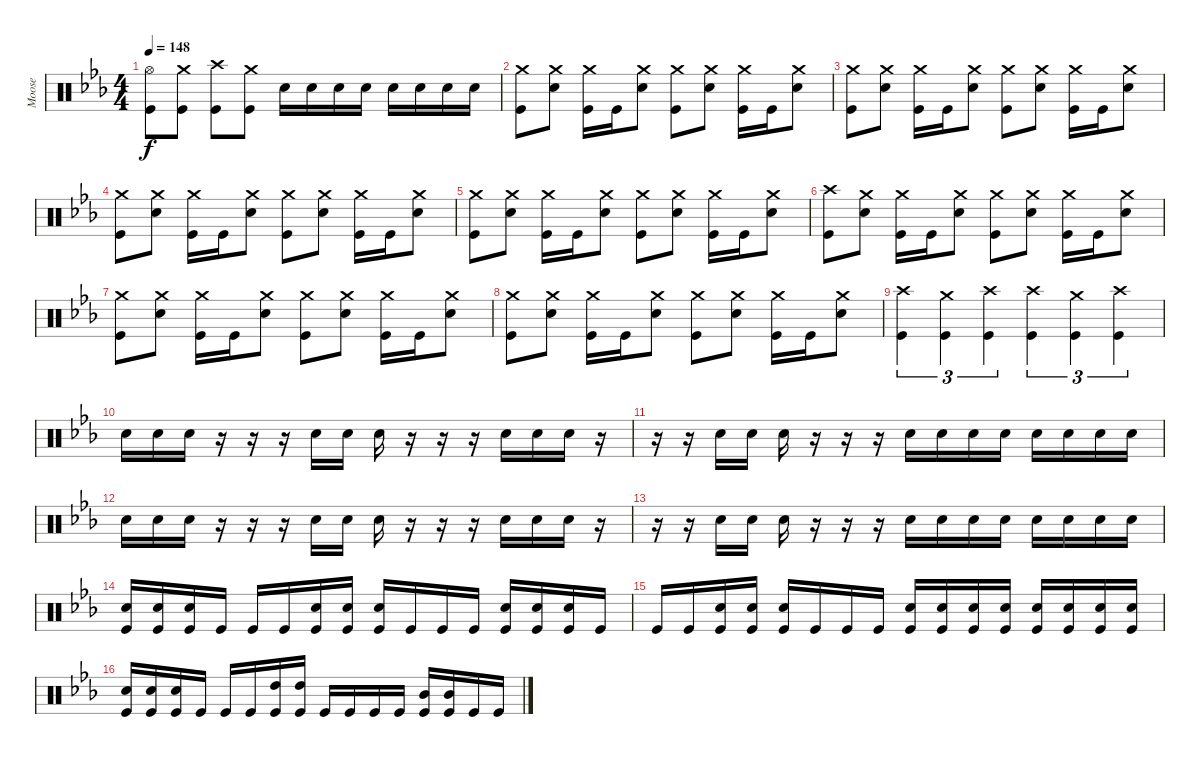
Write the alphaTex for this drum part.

\track ("Moose" "Moose") {instrument percussion}
\staff {score}
\articulation defaults
\ts (4 4)
\tempo 148
\clef neutral
\ks eb
("Hi-Hat (open)" "Kick (hit)").8{dy f} ("Crash medium (hit)" "Kick (hit)").8 ("Crash high (hit)" "Kick (hit)").8 ("Crash medium (hit)" "Kick (hit)").8 "Snare (hit) 2".16 "Snare (hit) 2".16 "Snare (hit) 2".16 "Snare (hit) 2".16 "Snare (hit) 2".16 "Snare (hit) 2".16 "Snare (hit) 2".16 "Snare (hit) 2".16 |
("Crash medium (hit)" "Kick (hit)").8 ("Crash medium (hit)" "Snare (hit) 2").8 ("Crash medium (hit)" "Kick (hit)").16 "Kick (hit)".16 ("Crash medium (hit)" "Snare (hit) 2").8 ("Crash medium (hit)" "Kick (hit)").8 ("Crash medium (hit)" "Snare (hit) 2").8 ("Crash medium (hit)" "Kick (hit)").16 "Kick (hit)".16 ("Crash medium (hit)" "Snare (hit) 2").8 |
("Crash medium (hit)" "Kick (hit)").8 ("Crash medium (hit)" "Snare (hit) 2").8 ("Crash medium (hit)" "Kick (hit)").16 "Kick (hit)".16 ("Crash medium (hit)" "Snare (hit) 2").8 ("Crash medium (hit)" "Kick (hit)").8 ("Crash medium (hit)" "Snare (hit) 2").8 ("Crash medium (hit)" "Kick (hit)").16 "Kick (hit)".16 ("Crash medium (hit)" "Snare (hit) 2").8 |
("Crash medium (hit)" "Kick (hit)").8 ("Crash medium (hit)" "Snare (hit) 2").8 ("Crash medium (hit)" "Kick (hit)").16 "Kick (hit)".16 ("Crash medium (hit)" "Snare (hit) 2").8 ("Crash medium (hit)" "Kick (hit)").8 ("Crash medium (hit)" "Snare (hit) 2").8 ("Crash medium (hit)" "Kick (hit)").16 "Kick (hit)".16 ("Crash medium (hit)" "Snare (hit) 2").8 |
("Crash medium (hit)" "Kick (hit)").8 ("Crash medium (hit)" "Snare (hit) 2").8 ("Crash medium (hit)" "Kick (hit)").16 "Kick (hit)".16 ("Crash medium (hit)" "Snare (hit) 2").8 ("Crash medium (hit)" "Kick (hit)").8 ("Crash medium (hit)" "Snare (hit) 2").8 ("Crash medium (hit)" "Kick (hit)").16 "Kick (hit)".16 ("Crash medium (hit)" "Snare (hit) 2").8 |
("Crash high (hit)" "Kick (hit)").8 ("Crash medium (hit)" "Snare (hit) 2").8 ("Crash medium (hit)" "Kick (hit)").16 "Kick (hit)".16 ("Crash medium (hit)" "Snare (hit) 2").8 ("Crash medium (hit)" "Kick (hit)").8 ("Crash medium (hit)" "Snare (hit) 2").8 ("Crash medium (hit)" "Kick (hit)").16 "Kick (hit)".16 ("Crash medium (hit)" "Snare (hit) 2").8 |
("Crash medium (hit)" "Kick (hit)").8 ("Crash medium (hit)" "Snare (hit) 2").8 ("Crash medium (hit)" "Kick (hit)").16 "Kick (hit)".16 ("Crash medium (hit)" "Snare (hit) 2").8 ("Crash medium (hit)" "Kick (hit)").8 ("Crash medium (hit)" "Snare (hit) 2").8 ("Crash medium (hit)" "Kick (hit)").16 "Kick (hit)".16 ("Crash medium (hit)" "Snare (hit) 2").8 |
("Crash medium (hit)" "Kick (hit)").8 ("Crash medium (hit)" "Snare (hit) 2").8 ("Crash medium (hit)" "Kick (hit)").16 "Kick (hit)".16 ("Crash medium (hit)" "Snare (hit) 2").8 ("Crash medium (hit)" "Kick (hit)").8 ("Crash medium (hit)" "Snare (hit) 2").8 ("Crash medium (hit)" "Kick (hit)").16 "Kick (hit)".16 ("Crash medium (hit)" "Snare (hit) 2").8 |
("Crash high (hit)" "Kick (hit)").4{tu (3 2)} ("Crash medium (hit)" "Kick (hit)").4{tu (3 2)} ("Crash high (hit)" "Kick (hit)").4{tu (3 2)} ("Crash high (hit)" "Kick (hit)").4{tu (3 2)} ("Crash medium (hit)" "Kick (hit)").4{tu (3 2)} ("Crash high (hit)" "Kick (hit)").4{tu (3 2)} |
"Snare (hit) 2".16 "Snare (hit) 2".16 "Snare (hit) 2".16 r.16 r.16 r.16 "Snare (hit) 2".16 "Snare (hit) 2".16 "Snare (hit) 2".16 r.16 r.16 r.16 "Snare (hit) 2".16 "Snare (hit) 2".16 "Snare (hit) 2".16 r.16 |
r.16 r.16 "Snare (hit) 2".16 "Snare (hit) 2".16 "Snare (hit) 2".16 r.16 r.16 r.16 "Snare (hit) 2".16 "Snare (hit) 2".16 "Snare (hit) 2".16 "Snare (hit) 2".16 "Snare (hit) 2".16 "Snare (hit) 2".16 "Snare (hit) 2".16 "Snare (hit) 2".16 |
"Snare (hit) 2".16 "Snare (hit) 2".16 "Snare (hit) 2".16 r.16 r.16 r.16 "Snare (hit) 2".16 "Snare (hit) 2".16 "Snare (hit) 2".16 r.16 r.16 r.16 "Snare (hit) 2".16 "Snare (hit) 2".16 "Snare (hit) 2".16 r.16 |
r.16 r.16 "Snare (hit) 2".16 "Snare (hit) 2".16 "Snare (hit) 2".16 r.16 r.16 r.16 "Snare (hit) 2".16 "Snare (hit) 2".16 "Snare (hit) 2".16 "Snare (hit) 2".16 "Snare (hit) 2".16 "Snare (hit) 2".16 "Snare (hit) 2".16 "Snare (hit) 2".16 |
("Snare (hit) 2" "Kick (hit)").16 ("Snare (hit) 2" "Kick (hit)").16 ("Snare (hit) 2" "Kick (hit)").16 "Kick (hit)".16 "Kick (hit)".16 "Kick (hit)".16 ("Snare (hit) 2" "Kick (hit)").16 ("Snare (hit) 2" "Kick (hit)").16 ("Snare (hit) 2" "Kick (hit)").16 "Kick (hit)".16 "Kick (hit)".16 "Kick (hit)".16 ("Snare (hit) 2" "Kick (hit)").16 ("Snare (hit) 2" "Kick (hit)").16 ("Snare (hit) 2" "Kick (hit)").16 "Kick (hit)".16 |
"Kick (hit)".16 "Kick (hit)".16 ("Snare (hit) 2" "Kick (hit)").16 ("Snare (hit) 2" "Kick (hit)").16 ("Snare (hit) 2" "Kick (hit)").16 "Kick (hit)".16 "Kick (hit)".16 "Kick (hit)".16 ("Snare (hit) 2" "Kick (hit)").16 ("Snare (hit) 2" "Kick (hit)").16 ("Snare (hit) 2" "Kick (hit)").16 ("Snare (hit) 2" "Kick (hit)").16 ("Snare (hit) 2" "Kick (hit)").16 ("Snare (hit) 2" "Kick (hit)").16 ("Snare (hit) 2" "Kick (hit)").16 ("Snare (hit) 2" "Kick (hit)").16 |
("Snare (hit) 2" "Kick (hit)").16 ("Snare (hit) 2" "Kick (hit)").16 ("Snare (hit) 2" "Kick (hit)").16 "Kick (hit)".16 "Kick (hit)".16 "Kick (hit)".16 ("High Tom (hit)" "Kick (hit)").16 ("High Tom (hit)" "Kick (hit)").16 "Kick (hit)".16 "Kick (hit)".16 "Kick (hit)".16 "Kick (hit)".16 ("Mid Tom (hit)" "Kick (hit)").16 ("Mid Tom (hit)" "Kick (hit)").16 "Kick (hit)".16 "Kick (hit)".16
